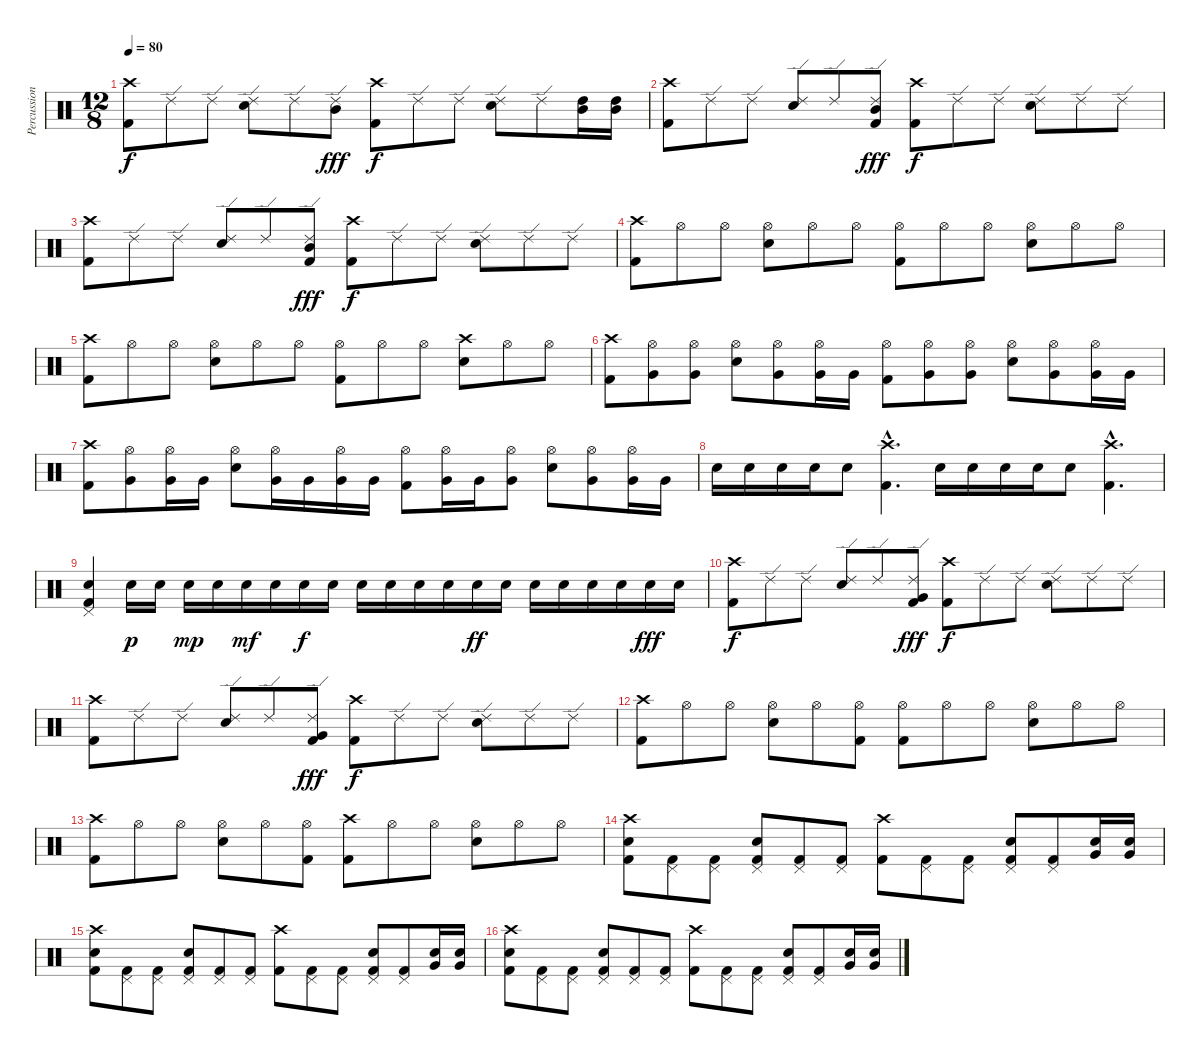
\track ("Percussions" "Percussion") {instrument percussion}
\staff {score}
\articulation defaults
\ts (12 8)
\tempo 80
\clef neutral
\ks c
("Crash high (hit)" "Kick (hit) 2").8{dy f} "Ride (edge) 2".8 "Ride (edge) 2".8 ("Ride (edge) 2" "Electric Snare (hit)").8 "Ride (edge) 2".8 ("Ride (edge) 2" "Mid Tom (hit)").8{dy fff} ("Crash high (hit)" "Kick (hit) 2").8{dy f} "Ride (edge) 2".8 "Ride (edge) 2".8 ("Ride (edge) 2" "Electric Snare (hit)").8 "Ride (edge) 2".8 ("High Tom (hit)" "Mid Tom (hit)").16 ("High Tom (hit)" "Mid Tom (hit)").16 |
("Crash high (hit)" "Kick (hit) 2").8 "Ride (edge) 2".8 "Ride (edge) 2".8 ("Ride (edge) 2" "Electric Snare (hit)").8 "Ride (edge) 2".8 ("Ride (edge) 2" "Mid Tom (hit)" "Kick (hit) 2").8{dy fff} ("Crash high (hit)" "Kick (hit) 2").8{dy f} "Ride (edge) 2".8 "Ride (edge) 2".8 ("Ride (edge) 2" "Electric Snare (hit)").8 "Ride (edge) 2".8 "Ride (edge) 2".8 |
("Crash high (hit)" "Kick (hit) 2").8 "Ride (edge) 2".8 "Ride (edge) 2".8 ("Ride (edge) 2" "Electric Snare (hit)").8 "Ride (edge) 2".8 ("Ride (edge) 2" "Mid Tom (hit)" "Kick (hit) 2").8{dy fff} ("Crash high (hit)" "Kick (hit) 2").8{dy f} "Ride (edge) 2".8 "Ride (edge) 2".8 ("Ride (edge) 2" "Electric Snare (hit)").8 "Ride (edge) 2".8 "Ride (edge) 2".8 |
("Crash high (hit)" "Kick (hit) 2").8 "Hi-Hat (open)".8 "Hi-Hat (open)".8 ("Hi-Hat (open)" "Electric Snare (hit)").8 "Hi-Hat (open)".8 "Hi-Hat (open)".8 ("Hi-Hat (open)" "Kick (hit) 2").8 "Hi-Hat (open)".8 "Hi-Hat (open)".8 ("Hi-Hat (open)" "Electric Snare (hit)").8 "Hi-Hat (open)".8 "Hi-Hat (open)".8 |
("Crash high (hit)" "Kick (hit) 2").8 "Hi-Hat (open)".8 "Hi-Hat (open)".8 ("Hi-Hat (open)" "Electric Snare (hit)").8 "Hi-Hat (open)".8 "Hi-Hat (open)".8 ("Hi-Hat (open)" "Kick (hit) 2").8 "Hi-Hat (open)".8 "Hi-Hat (open)".8 ("Crash high (hit)" "Electric Snare (hit)").8 "Hi-Hat (open)".8 "Hi-Hat (open)".8 |
("Crash high (hit)" "Kick (hit) 2").8 ("Hi-Hat (open)" "Very Low Tom (hit)").8 ("Hi-Hat (open)" "Very Low Tom (hit)").8 ("Hi-Hat (open)" "Electric Snare (hit)").8 ("Hi-Hat (open)" "Very Low Tom (hit)").8 ("Hi-Hat (open)" "Very Low Tom (hit)").16 "Very Low Tom (hit)".16 ("Hi-Hat (open)" "Kick (hit) 2").8 ("Hi-Hat (open)" "Very Low Tom (hit)").8 ("Hi-Hat (open)" "Very Low Tom (hit)").8 ("Hi-Hat (open)" "Electric Snare (hit)").8 ("Hi-Hat (open)" "Very Low Tom (hit)").8 ("Hi-Hat (open)" "Very Low Tom (hit)").16 "Very Low Tom (hit)".16 |
("Crash high (hit)" "Kick (hit) 2").8 ("Hi-Hat (open)" "Very Low Tom (hit)").8 ("Hi-Hat (open)" "Very Low Tom (hit)").16 "Very Low Tom (hit)".16 ("Hi-Hat (open)" "Electric Snare (hit)").8 ("Hi-Hat (open)" "Very Low Tom (hit)").16 "Very Low Tom (hit)".16 ("Hi-Hat (open)" "Very Low Tom (hit)").16 "Very Low Tom (hit)".16 ("Hi-Hat (open)" "Kick (hit) 2").8 ("Hi-Hat (open)" "Very Low Tom (hit)").16 "Very Low Tom (hit)".16 ("Hi-Hat (open)" "Very Low Tom (hit)").8 ("Hi-Hat (open)" "Electric Snare (hit)").8 ("Hi-Hat (open)" "Very Low Tom (hit)").8 ("Hi-Hat (open)" "Very Low Tom (hit)").16 "Very Low Tom (hit)".16 |
"Electric Snare (hit)".16 "Electric Snare (hit)".16 "Electric Snare (hit)".16 "Electric Snare (hit)".16 "Electric Snare (hit)".8 ("Crash high (hit)"{hac} "Kick (hit) 2"{hac}).4{d} "Electric Snare (hit)".16 "Electric Snare (hit)".16 "Electric Snare (hit)".16 "Electric Snare (hit)".16 "Electric Snare (hit)".8 ("Crash high (hit)"{hac} "Kick (hit) 2"{hac}).4{d} |
("Pedal Hi-Hat (hit)" "Electric Snare (hit)" "Kick (hit) 2").4 "Electric Snare (hit)".16{dy p} "Electric Snare (hit)".16 "Electric Snare (hit)".16{dy mp} "Electric Snare (hit)".16 "Electric Snare (hit)".16{dy mf} "Electric Snare (hit)".16 "Electric Snare (hit)".16{dy f} "Electric Snare (hit)".16 "Electric Snare (hit)".16 "Electric Snare (hit)".16 "Electric Snare (hit)".16 "Electric Snare (hit)".16 "Electric Snare (hit)".16{dy ff} "Electric Snare (hit)".16 "Electric Snare (hit)".16 "Electric Snare (hit)".16 "Electric Snare (hit)".16 "Electric Snare (hit)".16 "Electric Snare (hit)".16{dy fff} "Electric Snare (hit)".16 |
("Crash high (hit)" "Kick (hit) 2").8{dy f} "Ride (edge) 2".8 "Ride (edge) 2".8 ("Ride (edge) 2" "Electric Snare (hit)").8 "Ride (edge) 2".8 ("Ride (edge) 2" "Very Low Tom (hit)" "Kick (hit) 2").8{dy fff} ("Crash high (hit)" "Kick (hit) 2").8{dy f} "Ride (edge) 2".8 "Ride (edge) 2".8 ("Ride (edge) 2" "Electric Snare (hit)").8 "Ride (edge) 2".8 "Ride (edge) 2".8 |
("Crash high (hit)" "Kick (hit) 2").8 "Ride (edge) 2".8 "Ride (edge) 2".8 ("Ride (edge) 2" "Electric Snare (hit)").8 "Ride (edge) 2".8 ("Ride (edge) 2" "Very Low Tom (hit)" "Kick (hit) 2").8{dy fff} ("Crash high (hit)" "Kick (hit) 2").8{dy f} "Ride (edge) 2".8 "Ride (edge) 2".8 ("Ride (edge) 2" "Electric Snare (hit)").8 "Ride (edge) 2".8 "Ride (edge) 2".8 |
("Crash high (hit)" "Kick (hit) 2").8 "Hi-Hat (open)".8 "Hi-Hat (open)".8 ("Hi-Hat (open)" "Electric Snare (hit)").8 "Hi-Hat (open)".8 ("Hi-Hat (open)" "Kick (hit) 2").8 ("Hi-Hat (open)" "Kick (hit) 2").8 "Hi-Hat (open)".8 "Hi-Hat (open)".8 ("Hi-Hat (open)" "Electric Snare (hit)").8 "Hi-Hat (open)".8 "Hi-Hat (open)".8 |
("Crash high (hit)" "Kick (hit) 2").8 "Hi-Hat (open)".8 "Hi-Hat (open)".8 ("Hi-Hat (open)" "Electric Snare (hit)").8 "Hi-Hat (open)".8 ("Hi-Hat (open)" "Kick (hit) 2").8 ("Crash high (hit)" "Kick (hit) 2").8 "Hi-Hat (open)".8 "Hi-Hat (open)".8 ("Hi-Hat (open)" "Electric Snare (hit)").8 "Hi-Hat (open)".8 "Hi-Hat (open)".8 |
("Crash high (hit)" "Electric Snare (hit)" "Kick (hit) 2").8 ("Pedal Hi-Hat (hit)" "Kick (hit) 2").8 ("Pedal Hi-Hat (hit)" "Kick (hit) 2").8 ("Pedal Hi-Hat (hit)" "Electric Snare (hit)" "Kick (hit) 2").8 ("Pedal Hi-Hat (hit)" "Kick (hit) 2").8 ("Pedal Hi-Hat (hit)" "Kick (hit) 2").8 ("Crash high (hit)" "Kick (hit) 2").8 ("Pedal Hi-Hat (hit)" "Kick (hit) 2").8 ("Pedal Hi-Hat (hit)" "Kick (hit) 2").8 ("Pedal Hi-Hat (hit)" "Electric Snare (hit)" "Kick (hit) 2").8 ("Pedal Hi-Hat (hit)" "Kick (hit) 2").8 ("Electric Snare (hit)" "Very Low Tom (hit)").16 ("Electric Snare (hit)" "Very Low Tom (hit)").16 |
("Crash high (hit)" "Electric Snare (hit)" "Kick (hit) 2").8 ("Pedal Hi-Hat (hit)" "Kick (hit) 2").8 ("Pedal Hi-Hat (hit)" "Kick (hit) 2").8 ("Pedal Hi-Hat (hit)" "Electric Snare (hit)" "Kick (hit) 2").8 ("Pedal Hi-Hat (hit)" "Kick (hit) 2").8 ("Pedal Hi-Hat (hit)" "Kick (hit) 2").8 ("Crash high (hit)" "Kick (hit) 2").8 ("Pedal Hi-Hat (hit)" "Kick (hit) 2").8 ("Pedal Hi-Hat (hit)" "Kick (hit) 2").8 ("Pedal Hi-Hat (hit)" "Electric Snare (hit)" "Kick (hit) 2").8 ("Pedal Hi-Hat (hit)" "Kick (hit) 2").8 ("Electric Snare (hit)" "Very Low Tom (hit)").16 ("Electric Snare (hit)" "Very Low Tom (hit)").16 |
("Crash high (hit)" "Electric Snare (hit)" "Kick (hit) 2").8 ("Pedal Hi-Hat (hit)" "Kick (hit) 2").8 ("Pedal Hi-Hat (hit)" "Kick (hit) 2").8 ("Pedal Hi-Hat (hit)" "Electric Snare (hit)" "Kick (hit) 2").8 ("Pedal Hi-Hat (hit)" "Kick (hit) 2").8 ("Pedal Hi-Hat (hit)" "Kick (hit) 2").8 ("Crash high (hit)" "Kick (hit) 2").8 ("Pedal Hi-Hat (hit)" "Kick (hit) 2").8 ("Pedal Hi-Hat (hit)" "Kick (hit) 2").8 ("Pedal Hi-Hat (hit)" "Electric Snare (hit)" "Kick (hit) 2").8 ("Pedal Hi-Hat (hit)" "Kick (hit) 2").8 ("Electric Snare (hit)" "Very Low Tom (hit)").16 ("Electric Snare (hit)" "Very Low Tom (hit)").16
